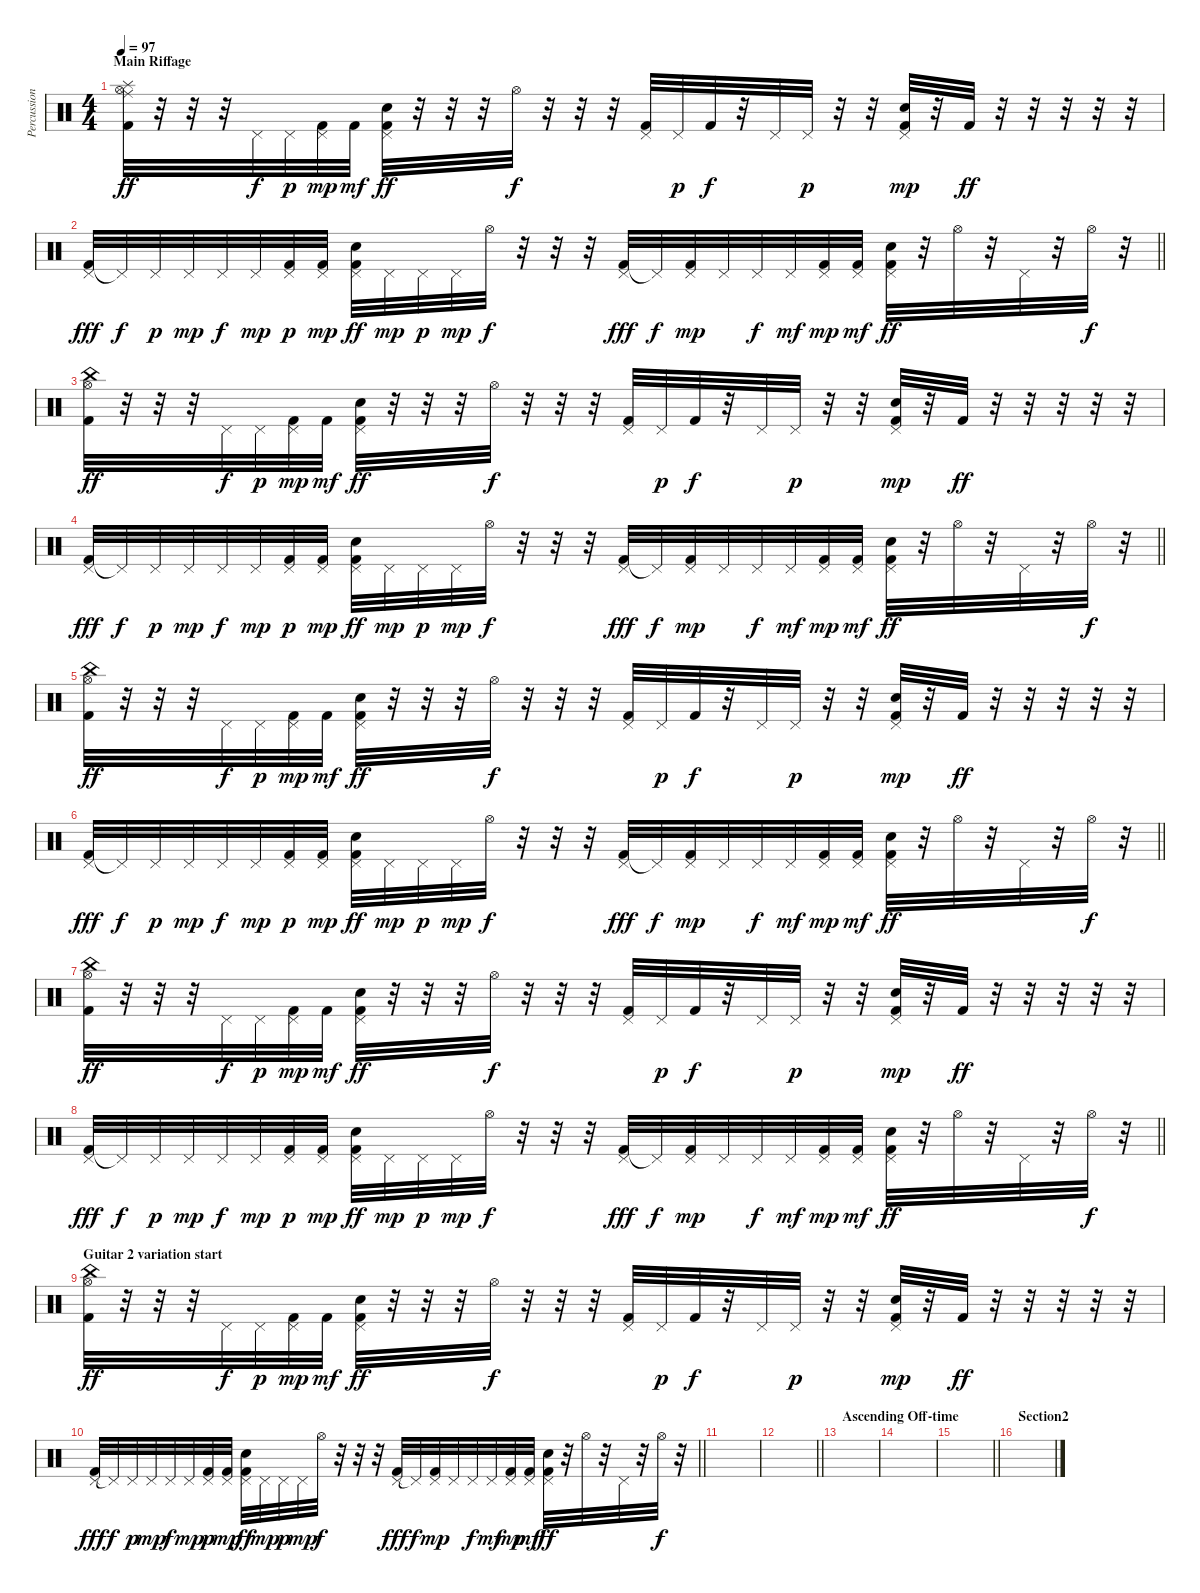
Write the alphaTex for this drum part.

\track ("Percussion" "Percussion") {instrument percussion}
\staff {score}
\articulation defaults
\ts (4 4)
\section ("" "Main Riffage")
\tempo 97
\clef neutral
\ks c
("Splash (hit)" "Ride (middle)" "Kick (hit) 2" "Hi-Hat (open)").32{dy ff} r.32 r.32 r.32 "Pedal Hi-Hat (hit)".32{dy f} "Pedal Hi-Hat (hit)".32{dy p} ("Kick (hit) 2" "Pedal Hi-Hat (hit)").32{dy mp} "Kick (hit) 2".32{dy mf} ("Electric Snare (hit)" "Kick (hit) 2" "Pedal Hi-Hat (hit)").32{dy ff} r.32 r.32 r.32 "Hi-Hat (open)".32{dy f} r.32 r.32 r.32 ("Kick (hit) 2" "Pedal Hi-Hat (hit)").32 "Pedal Hi-Hat (hit)".32{dy p} "Kick (hit) 2".32{dy f} r.32 "Pedal Hi-Hat (hit)".32 "Pedal Hi-Hat (hit)".32{dy p} r.32 r.32 ("Electric Snare (hit)" "Kick (hit) 2" "Pedal Hi-Hat (hit)").32{dy mp} r.32 "Kick (hit) 2".32{dy ff} r.32 r.32 r.32 r.32 r.32 |
\barLineRight lightlight
("Kick (hit) 2" "Pedal Hi-Hat (hit)").32{dy fff} "Pedal Hi-Hat (hit)"{t}.32{dy f} "Pedal Hi-Hat (hit)".32{dy p} "Pedal Hi-Hat (hit)".32{dy mp} "Pedal Hi-Hat (hit)".32{dy f} "Pedal Hi-Hat (hit)".32{dy mp} ("Kick (hit) 2" "Pedal Hi-Hat (hit)").32{dy p} ("Kick (hit) 2" "Pedal Hi-Hat (hit)").32{dy mp} ("Electric Snare (hit)" "Kick (hit) 2" "Pedal Hi-Hat (hit)").32{dy ff} "Pedal Hi-Hat (hit)".32{dy mp} "Pedal Hi-Hat (hit)".32{dy p} "Pedal Hi-Hat (hit)".32{dy mp} "Hi-Hat (open)".32{dy f} r.32 r.32 r.32 ("Kick (hit) 2" "Pedal Hi-Hat (hit)").32{dy fff} "Pedal Hi-Hat (hit)"{t}.32{dy f} ("Kick (hit) 2" "Pedal Hi-Hat (hit)").32{dy mp} "Pedal Hi-Hat (hit)".32 "Pedal Hi-Hat (hit)".32{dy f} "Pedal Hi-Hat (hit)".32{dy mf} ("Kick (hit) 2" "Pedal Hi-Hat (hit)").32{dy mp} ("Kick (hit) 2" "Pedal Hi-Hat (hit)").32{dy mf} ("Electric Snare (hit)" "Kick (hit) 2" "Pedal Hi-Hat (hit)").32{dy ff} r.32 "Hi-Hat (open)".32 r.32 "Pedal Hi-Hat (hit)".32 r.32 "Hi-Hat (open)".32{dy f} r.32 |
("China (hit)" "Kick (hit) 2" "Hi-Hat (open)").32{dy ff} r.32 r.32 r.32 "Pedal Hi-Hat (hit)".32{dy f} "Pedal Hi-Hat (hit)".32{dy p} ("Kick (hit) 2" "Pedal Hi-Hat (hit)").32{dy mp} "Kick (hit) 2".32{dy mf} ("Electric Snare (hit)" "Kick (hit) 2" "Pedal Hi-Hat (hit)").32{dy ff} r.32 r.32 r.32 "Hi-Hat (open)".32{dy f} r.32 r.32 r.32 ("Kick (hit) 2" "Pedal Hi-Hat (hit)").32 "Pedal Hi-Hat (hit)".32{dy p} "Kick (hit) 2".32{dy f} r.32 "Pedal Hi-Hat (hit)".32 "Pedal Hi-Hat (hit)".32{dy p} r.32 r.32 ("Electric Snare (hit)" "Kick (hit) 2" "Pedal Hi-Hat (hit)").32{dy mp} r.32 "Kick (hit) 2".32{dy ff} r.32 r.32 r.32 r.32 r.32 |
\barLineRight lightlight
("Kick (hit) 2" "Pedal Hi-Hat (hit)").32{dy fff} "Pedal Hi-Hat (hit)"{t}.32{dy f} "Pedal Hi-Hat (hit)".32{dy p} "Pedal Hi-Hat (hit)".32{dy mp} "Pedal Hi-Hat (hit)".32{dy f} "Pedal Hi-Hat (hit)".32{dy mp} ("Kick (hit) 2" "Pedal Hi-Hat (hit)").32{dy p} ("Kick (hit) 2" "Pedal Hi-Hat (hit)").32{dy mp} ("Electric Snare (hit)" "Kick (hit) 2" "Pedal Hi-Hat (hit)").32{dy ff} "Pedal Hi-Hat (hit)".32{dy mp} "Pedal Hi-Hat (hit)".32{dy p} "Pedal Hi-Hat (hit)".32{dy mp} "Hi-Hat (open)".32{dy f} r.32 r.32 r.32 ("Kick (hit) 2" "Pedal Hi-Hat (hit)").32{dy fff} "Pedal Hi-Hat (hit)"{t}.32{dy f} ("Kick (hit) 2" "Pedal Hi-Hat (hit)").32{dy mp} "Pedal Hi-Hat (hit)".32 "Pedal Hi-Hat (hit)".32{dy f} "Pedal Hi-Hat (hit)".32{dy mf} ("Kick (hit) 2" "Pedal Hi-Hat (hit)").32{dy mp} ("Kick (hit) 2" "Pedal Hi-Hat (hit)").32{dy mf} ("Electric Snare (hit)" "Kick (hit) 2" "Pedal Hi-Hat (hit)").32{dy ff} r.32 "Hi-Hat (open)".32 r.32 "Pedal Hi-Hat (hit)".32 r.32 "Hi-Hat (open)".32{dy f} r.32 |
("China (hit)" "Kick (hit) 2" "Hi-Hat (open)").32{dy ff} r.32 r.32 r.32 "Pedal Hi-Hat (hit)".32{dy f} "Pedal Hi-Hat (hit)".32{dy p} ("Kick (hit) 2" "Pedal Hi-Hat (hit)").32{dy mp} "Kick (hit) 2".32{dy mf} ("Electric Snare (hit)" "Kick (hit) 2" "Pedal Hi-Hat (hit)").32{dy ff} r.32 r.32 r.32 "Hi-Hat (open)".32{dy f} r.32 r.32 r.32 ("Kick (hit) 2" "Pedal Hi-Hat (hit)").32 "Pedal Hi-Hat (hit)".32{dy p} "Kick (hit) 2".32{dy f} r.32 "Pedal Hi-Hat (hit)".32 "Pedal Hi-Hat (hit)".32{dy p} r.32 r.32 ("Electric Snare (hit)" "Kick (hit) 2" "Pedal Hi-Hat (hit)").32{dy mp} r.32 "Kick (hit) 2".32{dy ff} r.32 r.32 r.32 r.32 r.32 |
\barLineRight lightlight
("Kick (hit) 2" "Pedal Hi-Hat (hit)").32{dy fff} "Pedal Hi-Hat (hit)"{t}.32{dy f} "Pedal Hi-Hat (hit)".32{dy p} "Pedal Hi-Hat (hit)".32{dy mp} "Pedal Hi-Hat (hit)".32{dy f} "Pedal Hi-Hat (hit)".32{dy mp} ("Kick (hit) 2" "Pedal Hi-Hat (hit)").32{dy p} ("Kick (hit) 2" "Pedal Hi-Hat (hit)").32{dy mp} ("Electric Snare (hit)" "Kick (hit) 2" "Pedal Hi-Hat (hit)").32{dy ff} "Pedal Hi-Hat (hit)".32{dy mp} "Pedal Hi-Hat (hit)".32{dy p} "Pedal Hi-Hat (hit)".32{dy mp} "Hi-Hat (open)".32{dy f} r.32 r.32 r.32 ("Kick (hit) 2" "Pedal Hi-Hat (hit)").32{dy fff} "Pedal Hi-Hat (hit)"{t}.32{dy f} ("Kick (hit) 2" "Pedal Hi-Hat (hit)").32{dy mp} "Pedal Hi-Hat (hit)".32 "Pedal Hi-Hat (hit)".32{dy f} "Pedal Hi-Hat (hit)".32{dy mf} ("Kick (hit) 2" "Pedal Hi-Hat (hit)").32{dy mp} ("Kick (hit) 2" "Pedal Hi-Hat (hit)").32{dy mf} ("Electric Snare (hit)" "Kick (hit) 2" "Pedal Hi-Hat (hit)").32{dy ff} r.32 "Hi-Hat (open)".32 r.32 "Pedal Hi-Hat (hit)".32 r.32 "Hi-Hat (open)".32{dy f} r.32 |
("China (hit)" "Kick (hit) 2" "Hi-Hat (open)").32{dy ff} r.32 r.32 r.32 "Pedal Hi-Hat (hit)".32{dy f} "Pedal Hi-Hat (hit)".32{dy p} ("Kick (hit) 2" "Pedal Hi-Hat (hit)").32{dy mp} "Kick (hit) 2".32{dy mf} ("Electric Snare (hit)" "Kick (hit) 2" "Pedal Hi-Hat (hit)").32{dy ff} r.32 r.32 r.32 "Hi-Hat (open)".32{dy f} r.32 r.32 r.32 ("Kick (hit) 2" "Pedal Hi-Hat (hit)").32 "Pedal Hi-Hat (hit)".32{dy p} "Kick (hit) 2".32{dy f} r.32 "Pedal Hi-Hat (hit)".32 "Pedal Hi-Hat (hit)".32{dy p} r.32 r.32 ("Electric Snare (hit)" "Kick (hit) 2" "Pedal Hi-Hat (hit)").32{dy mp} r.32 "Kick (hit) 2".32{dy ff} r.32 r.32 r.32 r.32 r.32 |
\barLineRight lightlight
("Kick (hit) 2" "Pedal Hi-Hat (hit)").32{dy fff} "Pedal Hi-Hat (hit)"{t}.32{dy f} "Pedal Hi-Hat (hit)".32{dy p} "Pedal Hi-Hat (hit)".32{dy mp} "Pedal Hi-Hat (hit)".32{dy f} "Pedal Hi-Hat (hit)".32{dy mp} ("Kick (hit) 2" "Pedal Hi-Hat (hit)").32{dy p} ("Kick (hit) 2" "Pedal Hi-Hat (hit)").32{dy mp} ("Electric Snare (hit)" "Kick (hit) 2" "Pedal Hi-Hat (hit)").32{dy ff} "Pedal Hi-Hat (hit)".32{dy mp} "Pedal Hi-Hat (hit)".32{dy p} "Pedal Hi-Hat (hit)".32{dy mp} "Hi-Hat (open)".32{dy f} r.32 r.32 r.32 ("Kick (hit) 2" "Pedal Hi-Hat (hit)").32{dy fff} "Pedal Hi-Hat (hit)"{t}.32{dy f} ("Kick (hit) 2" "Pedal Hi-Hat (hit)").32{dy mp} "Pedal Hi-Hat (hit)".32 "Pedal Hi-Hat (hit)".32{dy f} "Pedal Hi-Hat (hit)".32{dy mf} ("Kick (hit) 2" "Pedal Hi-Hat (hit)").32{dy mp} ("Kick (hit) 2" "Pedal Hi-Hat (hit)").32{dy mf} ("Electric Snare (hit)" "Kick (hit) 2" "Pedal Hi-Hat (hit)").32{dy ff} r.32 "Hi-Hat (open)".32 r.32 "Pedal Hi-Hat (hit)".32 r.32 "Hi-Hat (open)".32{dy f} r.32 |
\section ("" "Guitar 2 variation start")
("China (hit)" "Kick (hit) 2" "Hi-Hat (open)").32{dy ff} r.32 r.32 r.32 "Pedal Hi-Hat (hit)".32{dy f} "Pedal Hi-Hat (hit)".32{dy p} ("Kick (hit) 2" "Pedal Hi-Hat (hit)").32{dy mp} "Kick (hit) 2".32{dy mf} ("Electric Snare (hit)" "Kick (hit) 2" "Pedal Hi-Hat (hit)").32{dy ff} r.32 r.32 r.32 "Hi-Hat (open)".32{dy f} r.32 r.32 r.32 ("Kick (hit) 2" "Pedal Hi-Hat (hit)").32 "Pedal Hi-Hat (hit)".32{dy p} "Kick (hit) 2".32{dy f} r.32 "Pedal Hi-Hat (hit)".32 "Pedal Hi-Hat (hit)".32{dy p} r.32 r.32 ("Electric Snare (hit)" "Kick (hit) 2" "Pedal Hi-Hat (hit)").32{dy mp} r.32 "Kick (hit) 2".32{dy ff} r.32 r.32 r.32 r.32 r.32 |
\barLineRight lightlight
("Kick (hit) 2" "Pedal Hi-Hat (hit)").32{dy fff} "Pedal Hi-Hat (hit)"{t}.32{dy f} "Pedal Hi-Hat (hit)".32{dy p} "Pedal Hi-Hat (hit)".32{dy mp} "Pedal Hi-Hat (hit)".32{dy f} "Pedal Hi-Hat (hit)".32{dy mp} ("Kick (hit) 2" "Pedal Hi-Hat (hit)").32{dy p} ("Kick (hit) 2" "Pedal Hi-Hat (hit)").32{dy mp} ("Electric Snare (hit)" "Kick (hit) 2" "Pedal Hi-Hat (hit)").32{dy ff} "Pedal Hi-Hat (hit)".32{dy mp} "Pedal Hi-Hat (hit)".32{dy p} "Pedal Hi-Hat (hit)".32{dy mp} "Hi-Hat (open)".32{dy f} r.32 r.32 r.32 ("Kick (hit) 2" "Pedal Hi-Hat (hit)").32{dy fff} "Pedal Hi-Hat (hit)"{t}.32{dy f} ("Kick (hit) 2" "Pedal Hi-Hat (hit)").32{dy mp} "Pedal Hi-Hat (hit)".32 "Pedal Hi-Hat (hit)".32{dy f} "Pedal Hi-Hat (hit)".32{dy mf} ("Kick (hit) 2" "Pedal Hi-Hat (hit)").32{dy mp} ("Kick (hit) 2" "Pedal Hi-Hat (hit)").32{dy mf} ("Electric Snare (hit)" "Kick (hit) 2" "Pedal Hi-Hat (hit)").32{dy ff} r.32 "Hi-Hat (open)".32 r.32 "Pedal Hi-Hat (hit)".32 r.32 "Hi-Hat (open)".32{dy f} r.32 |
|
\barLineRight lightlight
|
\section ("" "Ascending Off-time")
|
|
\barLineRight lightlight
|
\section ("" "Section2")
